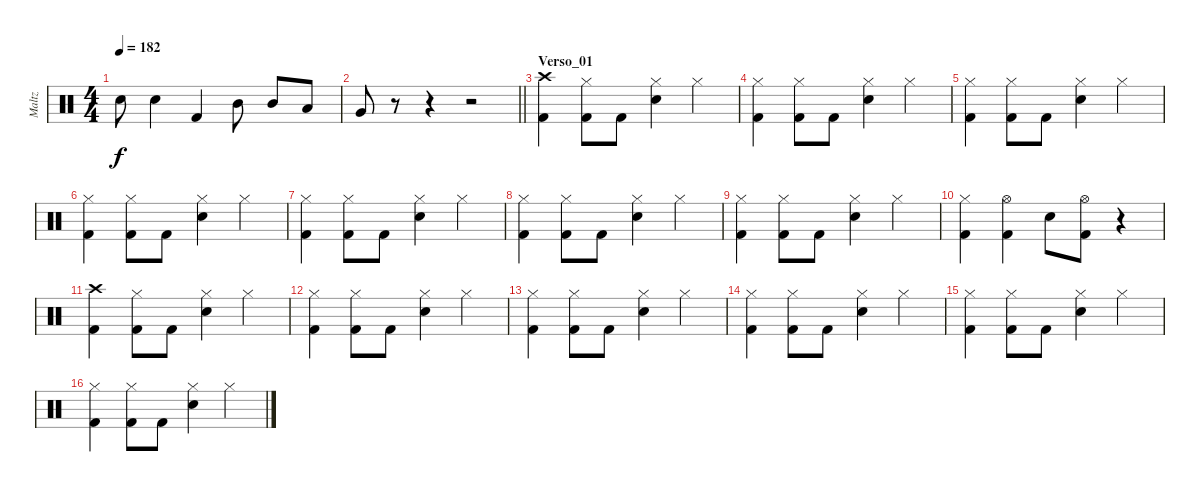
\track ("Maltz" "Maltz") {instrument percussion}
\staff {score}
\articulation defaults
\ts (4 4)
\tempo 182
\clef neutral
\ks c "Electric Snare (hit)".8{dy f} "Electric Snare (hit)".4 "Kick (hit) 2".4 "Mid Tom (hit)".8 "Mid Tom (hit)".8 "Low Tom (hit)".8
|
\barLineRight lightlight "Very Low Tom (hit)".8
r.8 r.4 r.2 |
\section ("" "Verso_01")
("Crash high (hit)" "Kick (hit) 2").4 ("Hi-Hat (closed)" "Kick (hit) 2").8 "Kick (hit) 2".8 ("Hi-Hat (closed)" "Electric Snare (hit)").4 "Hi-Hat (closed)".4 |
("Hi-Hat (closed)" "Kick (hit) 2").4 ("Hi-Hat (closed)" "Kick (hit) 2").8 "Kick (hit) 2".8 ("Hi-Hat (closed)" "Electric Snare (hit)").4 "Hi-Hat (closed)".4 |
("Hi-Hat (closed)" "Kick (hit) 2").4 ("Hi-Hat (closed)" "Kick (hit) 2").8 "Kick (hit) 2".8 ("Hi-Hat (closed)" "Electric Snare (hit)").4 "Hi-Hat (closed)".4 |
("Hi-Hat (closed)" "Kick (hit) 2").4 ("Hi-Hat (closed)" "Kick (hit) 2").8 "Kick (hit) 2".8 ("Hi-Hat (closed)" "Electric Snare (hit)").4 "Hi-Hat (closed)".4 |
("Hi-Hat (closed)" "Kick (hit) 2").4 ("Hi-Hat (closed)" "Kick (hit) 2").8 "Kick (hit) 2".8 ("Hi-Hat (closed)" "Electric Snare (hit)").4 "Hi-Hat (closed)".4 |
("Hi-Hat (closed)" "Kick (hit) 2").4 ("Hi-Hat (closed)" "Kick (hit) 2").8 "Kick (hit) 2".8 ("Hi-Hat (closed)" "Electric Snare (hit)").4 "Hi-Hat (closed)".4 |
("Hi-Hat (closed)" "Kick (hit) 2").4 ("Hi-Hat (closed)" "Kick (hit) 2").8 "Kick (hit) 2".8 ("Hi-Hat (closed)" "Electric Snare (hit)").4 "Hi-Hat (closed)".4 |
("Hi-Hat (closed)" "Kick (hit) 2").4 ("Hi-Hat (open)" "Kick (hit) 2").4 "Electric Snare (hit)".8 ("Hi-Hat (open)" "Kick (hit) 2").8 r.4 |
("Crash high (hit)" "Kick (hit) 2").4 ("Hi-Hat (closed)" "Kick (hit) 2").8 "Kick (hit) 2".8 ("Hi-Hat (closed)" "Electric Snare (hit)").4 "Hi-Hat (closed)".4 |
("Hi-Hat (closed)" "Kick (hit) 2").4 ("Hi-Hat (closed)" "Kick (hit) 2").8 "Kick (hit) 2".8 ("Hi-Hat (closed)" "Electric Snare (hit)").4 "Hi-Hat (closed)".4 |
("Hi-Hat (closed)" "Kick (hit) 2").4 ("Hi-Hat (closed)" "Kick (hit) 2").8 "Kick (hit) 2".8 ("Hi-Hat (closed)" "Electric Snare (hit)").4 "Hi-Hat (closed)".4 |
("Hi-Hat (closed)" "Kick (hit) 2").4 ("Hi-Hat (closed)" "Kick (hit) 2").8 "Kick (hit) 2".8 ("Hi-Hat (closed)" "Electric Snare (hit)").4 "Hi-Hat (closed)".4 |
("Hi-Hat (closed)" "Kick (hit) 2").4 ("Hi-Hat (closed)" "Kick (hit) 2").8 "Kick (hit) 2".8 ("Hi-Hat (closed)" "Electric Snare (hit)").4 "Hi-Hat (closed)".4 |
("Hi-Hat (closed)" "Kick (hit) 2").4 ("Hi-Hat (closed)" "Kick (hit) 2").8 "Kick (hit) 2".8 ("Hi-Hat (closed)" "Electric Snare (hit)").4 "Hi-Hat (closed)".4
